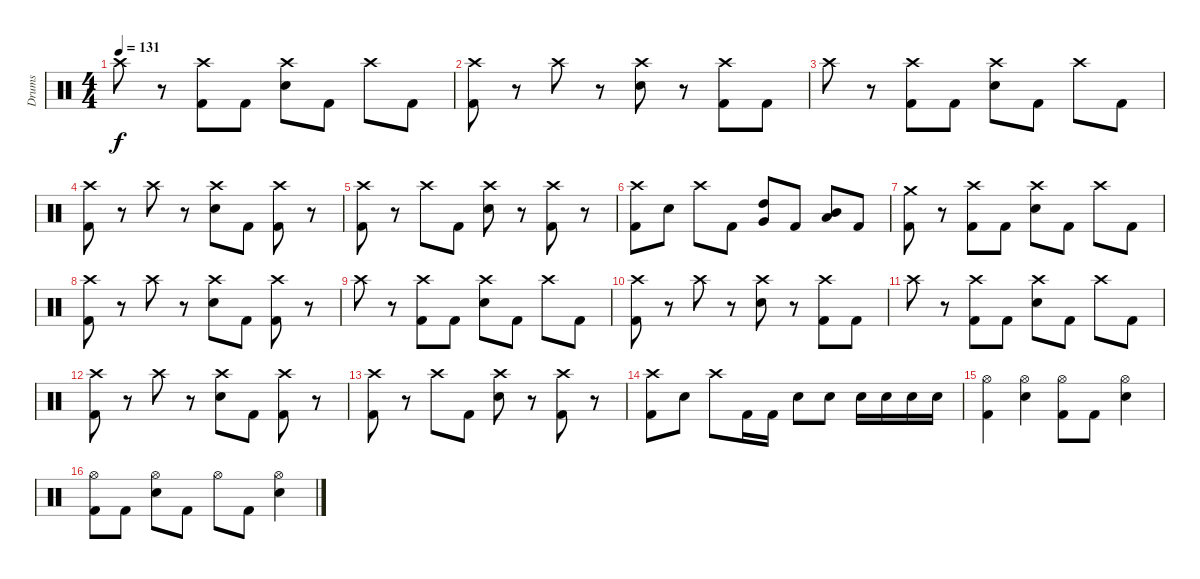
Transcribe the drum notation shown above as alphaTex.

\track ("Drums" "Drums") {instrument percussion}
\staff {score}
\articulation defaults
\ts (4 4)
\tempo 131
\clef neutral
\ks c "Crash high (hit)".8{dy f}
r.8 ("Crash high (hit)" "Kick (hit) 2").8 "Kick (hit) 2".8 ("Crash high (hit)" "Electric Snare (hit)").8 "Kick (hit) 2".8 "Crash high (hit)".8 "Kick (hit) 2".8 |
("Crash high (hit)" "Kick (hit) 2").8 r.8 "Crash high (hit)".8 r.8 ("Crash high (hit)" "Electric Snare (hit)").8 r.8 ("Crash high (hit)" "Kick (hit) 2").8 "Kick (hit) 2".8 |
"Crash high (hit)".8 r.8 ("Crash high (hit)" "Kick (hit) 2").8 "Kick (hit) 2".8 ("Crash high (hit)" "Electric Snare (hit)").8 "Kick (hit) 2".8 "Crash high (hit)".8 "Kick (hit) 2".8 |
("Crash high (hit)" "Kick (hit) 2").8 r.8 "Crash high (hit)".8 r.8 ("Crash high (hit)" "Electric Snare (hit)").8 "Kick (hit) 2".8 ("Crash high (hit)" "Kick (hit) 2").8 r.8 |
("Crash high (hit)" "Kick (hit) 2").8 r.8 "Crash high (hit)".8 "Kick (hit) 2".8 ("Crash high (hit)" "Electric Snare (hit)").8 r.8 ("Crash high (hit)" "Kick (hit) 2").8 r.8 |
("Crash high (hit)" "Kick (hit) 2").8 "Electric Snare (hit)".8 "Crash high (hit)".8 "Kick (hit) 2".8 ("Very Low Tom (hit)" "High Tom (hit)").8 "Kick (hit) 2".8 ("Low Floor Tom (hit)" "Mid Tom (hit)").8 "Kick (hit) 2".8 |
("Crash medium (hit)" "Kick (hit) 2").8 r.8 ("Crash high (hit)" "Kick (hit) 2").8 "Kick (hit) 2".8 ("Crash high (hit)" "Electric Snare (hit)").8 "Kick (hit) 2".8 "Crash high (hit)".8 "Kick (hit) 2".8 |
("Crash high (hit)" "Kick (hit) 2").8 r.8 "Crash high (hit)".8 r.8 ("Crash high (hit)" "Electric Snare (hit)").8 "Kick (hit) 2".8 ("Crash high (hit)" "Kick (hit) 2").8 r.8 |
"Crash high (hit)".8 r.8 ("Crash high (hit)" "Kick (hit) 2").8 "Kick (hit) 2".8 ("Crash high (hit)" "Electric Snare (hit)").8 "Kick (hit) 2".8 "Crash high (hit)".8 "Kick (hit) 2".8 |
("Crash high (hit)" "Kick (hit) 2").8 r.8 "Crash high (hit)".8 r.8 ("Crash high (hit)" "Electric Snare (hit)").8 r.8 ("Crash high (hit)" "Kick (hit) 2").8 "Kick (hit) 2".8 |
"Crash high (hit)".8 r.8 ("Crash high (hit)" "Kick (hit) 2").8 "Kick (hit) 2".8 ("Crash high (hit)" "Electric Snare (hit)").8 "Kick (hit) 2".8 "Crash high (hit)".8 "Kick (hit) 2".8 |
("Crash high (hit)" "Kick (hit) 2").8 r.8 "Crash high (hit)".8 r.8 ("Crash high (hit)" "Electric Snare (hit)").8 "Kick (hit) 2".8 ("Crash high (hit)" "Kick (hit) 2").8 r.8 |
("Crash high (hit)" "Kick (hit) 2").8 r.8 "Crash high (hit)".8 "Kick (hit) 2".8 ("Crash high (hit)" "Electric Snare (hit)").8 r.8 ("Crash high (hit)" "Kick (hit) 2").8 r.8 |
("Crash high (hit)" "Kick (hit) 2").8 "Electric Snare (hit)".8 "Crash high (hit)".8 "Kick (hit) 2".16 "Kick (hit) 2".16 "Electric Snare (hit)".8 "Electric Snare (hit)".8 "Electric Snare (hit)".16 "Electric Snare (hit)".16 "Electric Snare (hit)".16 "Electric Snare (hit)".16 |
("Hi-Hat (open)" "Kick (hit) 2").4 ("Hi-Hat (open)" "Electric Snare (hit)").4 ("Hi-Hat (open)" "Kick (hit) 2").8 "Kick (hit) 2".8 ("Hi-Hat (open)" "Electric Snare (hit)").4 |
("Hi-Hat (open)" "Kick (hit) 2").8 "Kick (hit) 2".8 ("Hi-Hat (open)" "Electric Snare (hit)").8 "Kick (hit) 2".8 "Hi-Hat (open)".8 "Kick (hit) 2".8 ("Hi-Hat (open)" "Electric Snare (hit)").4
